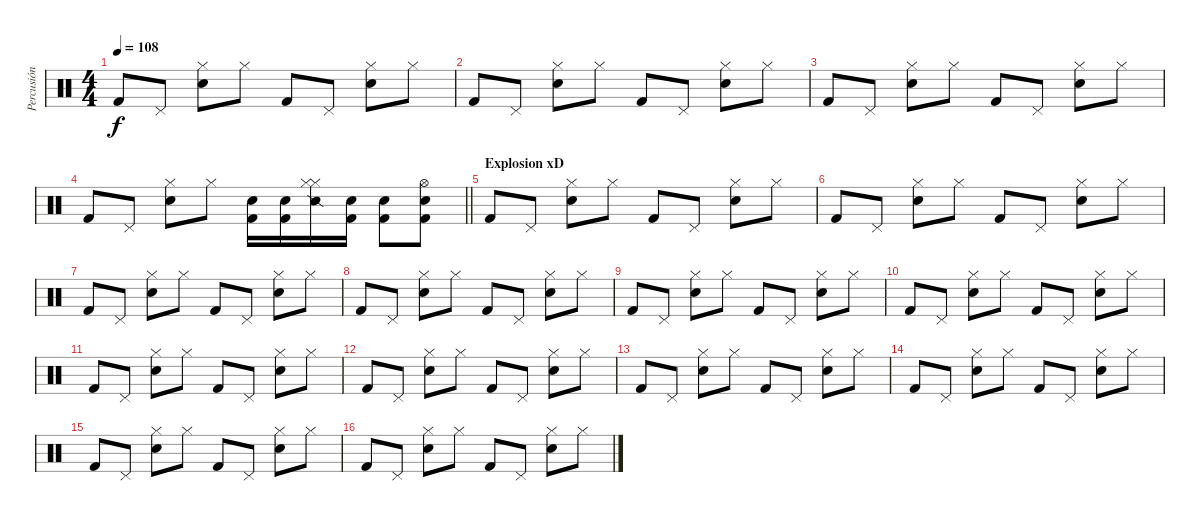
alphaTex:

\track ("Percusión" "Percusión") {instrument percussion}
\staff {score}
\articulation defaults
\ts (4 4)
\tempo 108
\clef neutral
\ks c "Kick (hit) 2".8{dy f} "Pedal Hi-Hat (hit)".8
("Electric Snare (hit)" "Hi-Hat (closed)").8 "Hi-Hat (closed)".8 "Kick (hit) 2".8 "Pedal Hi-Hat (hit)".8 ("Electric Snare (hit)" "Hi-Hat (closed)").8 "Hi-Hat (closed)".8 |
"Kick (hit) 2".8 "Pedal Hi-Hat (hit)".8 ("Electric Snare (hit)" "Hi-Hat (closed)").8 "Hi-Hat (closed)".8 "Kick (hit) 2".8 "Pedal Hi-Hat (hit)".8 ("Electric Snare (hit)" "Hi-Hat (closed)").8 "Hi-Hat (closed)".8 |
"Kick (hit) 2".8 "Pedal Hi-Hat (hit)".8 ("Electric Snare (hit)" "Hi-Hat (closed)").8 "Hi-Hat (closed)".8 "Kick (hit) 2".8 "Pedal Hi-Hat (hit)".8 ("Electric Snare (hit)" "Hi-Hat (closed)").8 "Hi-Hat (closed)".8 |
\barLineRight lightlight "Kick (hit) 2".8 "Pedal Hi-Hat (hit)".8
("Electric Snare (hit)" "Hi-Hat (closed)").8 "Hi-Hat (closed)".8 ("Kick (hit) 2" "Electric Snare (hit)").16 ("Kick (hit) 2" "Electric Snare (hit)").16 ("Snare (side stick) 2" "Hi-Hat (closed)" "Hi-Hat (closed)").16 ("Kick (hit) 2" "Electric Snare (hit)").16 ("Kick (hit) 2" "Electric Snare (hit)").8 ("Kick (hit) 2" "Electric Snare (hit)" "Hi-Hat (open)").8 |
\section ("" "Explosion xD")
"Kick (hit) 2".8 "Pedal Hi-Hat (hit)".8 ("Electric Snare (hit)" "Hi-Hat (closed)").8 "Hi-Hat (closed)".8 "Kick (hit) 2".8 "Pedal Hi-Hat (hit)".8 ("Electric Snare (hit)" "Hi-Hat (closed)").8 "Hi-Hat (closed)".8 |
"Kick (hit) 2".8 "Pedal Hi-Hat (hit)".8 ("Electric Snare (hit)" "Hi-Hat (closed)").8 "Hi-Hat (closed)".8 "Kick (hit) 2".8 "Pedal Hi-Hat (hit)".8 ("Electric Snare (hit)" "Hi-Hat (closed)").8 "Hi-Hat (closed)".8 |
"Kick (hit) 2".8 "Pedal Hi-Hat (hit)".8 ("Electric Snare (hit)" "Hi-Hat (closed)").8 "Hi-Hat (closed)".8 "Kick (hit) 2".8 "Pedal Hi-Hat (hit)".8 ("Electric Snare (hit)" "Hi-Hat (closed)").8 "Hi-Hat (closed)".8 |
"Kick (hit) 2".8 "Pedal Hi-Hat (hit)".8 ("Electric Snare (hit)" "Hi-Hat (closed)").8 "Hi-Hat (closed)".8 "Kick (hit) 2".8 "Pedal Hi-Hat (hit)".8 ("Electric Snare (hit)" "Hi-Hat (closed)").8 "Hi-Hat (closed)".8 |
"Kick (hit) 2".8 "Pedal Hi-Hat (hit)".8 ("Electric Snare (hit)" "Hi-Hat (closed)").8 "Hi-Hat (closed)".8 "Kick (hit) 2".8 "Pedal Hi-Hat (hit)".8 ("Electric Snare (hit)" "Hi-Hat (closed)").8 "Hi-Hat (closed)".8 |
"Kick (hit) 2".8 "Pedal Hi-Hat (hit)".8 ("Electric Snare (hit)" "Hi-Hat (closed)").8 "Hi-Hat (closed)".8 "Kick (hit) 2".8 "Pedal Hi-Hat (hit)".8 ("Electric Snare (hit)" "Hi-Hat (closed)").8 "Hi-Hat (closed)".8 |
"Kick (hit) 2".8 "Pedal Hi-Hat (hit)".8 ("Electric Snare (hit)" "Hi-Hat (closed)").8 "Hi-Hat (closed)".8 "Kick (hit) 2".8 "Pedal Hi-Hat (hit)".8 ("Electric Snare (hit)" "Hi-Hat (closed)").8 "Hi-Hat (closed)".8 |
"Kick (hit) 2".8 "Pedal Hi-Hat (hit)".8 ("Electric Snare (hit)" "Hi-Hat (closed)").8 "Hi-Hat (closed)".8 "Kick (hit) 2".8 "Pedal Hi-Hat (hit)".8 ("Electric Snare (hit)" "Hi-Hat (closed)").8 "Hi-Hat (closed)".8 |
"Kick (hit) 2".8 "Pedal Hi-Hat (hit)".8 ("Electric Snare (hit)" "Hi-Hat (closed)").8 "Hi-Hat (closed)".8 "Kick (hit) 2".8 "Pedal Hi-Hat (hit)".8 ("Electric Snare (hit)" "Hi-Hat (closed)").8 "Hi-Hat (closed)".8 |
"Kick (hit) 2".8 "Pedal Hi-Hat (hit)".8 ("Electric Snare (hit)" "Hi-Hat (closed)").8 "Hi-Hat (closed)".8 "Kick (hit) 2".8 "Pedal Hi-Hat (hit)".8 ("Electric Snare (hit)" "Hi-Hat (closed)").8 "Hi-Hat (closed)".8 |
"Kick (hit) 2".8 "Pedal Hi-Hat (hit)".8 ("Electric Snare (hit)" "Hi-Hat (closed)").8 "Hi-Hat (closed)".8 "Kick (hit) 2".8 "Pedal Hi-Hat (hit)".8 ("Electric Snare (hit)" "Hi-Hat (closed)").8 "Hi-Hat (closed)".8 |
"Kick (hit) 2".8 "Pedal Hi-Hat (hit)".8 ("Electric Snare (hit)" "Hi-Hat (closed)").8 "Hi-Hat (closed)".8 "Kick (hit) 2".8 "Pedal Hi-Hat (hit)".8 ("Electric Snare (hit)" "Hi-Hat (closed)").8 "Hi-Hat (closed)".8
